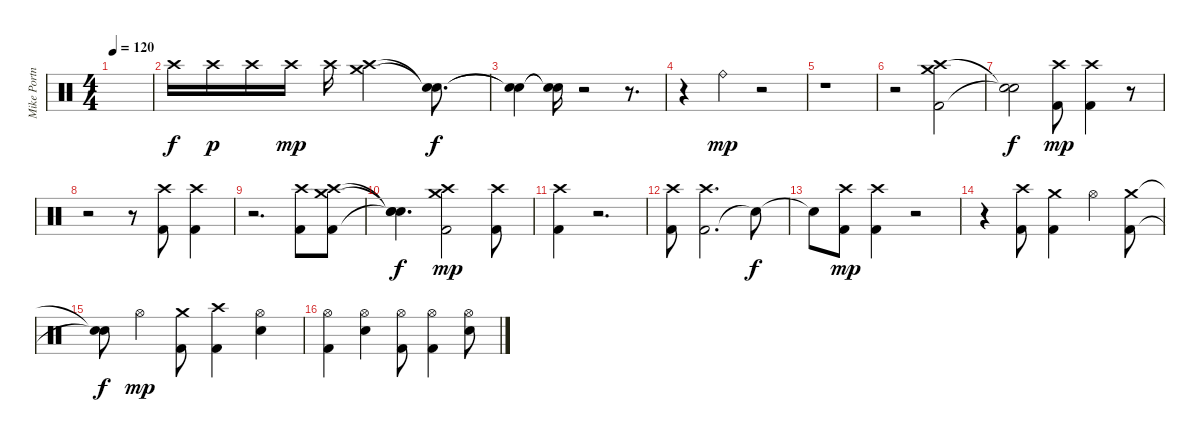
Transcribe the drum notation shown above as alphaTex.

\track ("Mike Portnoy" "Mike Portn") {instrument percussion}
\staff {score}
\articulation defaults
\ts (4 4)
\tempo 120
\clef neutral
\ks c
|
"Crash high (hit)".16 "Crash high (hit)".16{dy p} "Crash high (hit)".16 "Crash high (hit)".16{dy mp} "Crash high (hit)".16 ("Crash high (hit)" "Crash medium (hit)").2 ("Snare (hit)"{t} "Snare (hit)"{t}).8{d dy f} |
("Snare (hit)"{t} "Snare (hit)"{t}).4 ("Snare (hit)"{t} "Snare (hit)"{t}).16 r.2 r.8{d} |
r.4 "Ride (bell)".4{dy mp volume 16} r.2 |
r.1 |
r.2 ("Kick (hit) 2" "Crash high (hit)" "Crash medium (hit)").2 |
("Snare (hit)"{t} "Snare (hit)"{t}).2{dy f} ("Kick (hit) 2" "Crash high (hit)").8{dy mp} ("Kick (hit) 2" "Crash high (hit)").4{volume 16} r.8 |
r.2 r.8 ("Kick (hit) 2" "Crash high (hit)").8{volume 16} ("Kick (hit) 2" "Crash high (hit)").4{volume 16} |
r.2{d} ("Kick (hit) 2" "Crash high (hit)").8{volume 16} ("Kick (hit) 2" "Crash medium (hit)" "Crash high (hit)").8 |
("Snare (hit)"{t} "Snare (hit)"{t} "Snare (hit)"{t}).4{d dy f} ("Kick (hit) 2" "Crash high (hit)" "Crash medium (hit)").2{dy mp} ("Kick (hit) 2" "Crash high (hit)").8 |
("Kick (hit) 2" "Crash high (hit)").4{volume 16} r.2{d} |
("Kick (hit) 2" "Crash high (hit)").8{volume 16} ("Kick (hit) 2" "Crash high (hit)").2{d} "Snare (hit)"{t}.8{dy f} |
"Snare (hit)"{t}.8 ("Kick (hit) 2" "Crash high (hit)").8{dy mp} ("Kick (hit) 2" "Crash high (hit)").4{volume 16} r.2 |
r.4 ("Kick (hit) 2" "Crash high (hit)").8{volume 16} ("Kick (hit) 2" "Crash medium (hit)").4 "Hi-Hat (open)".4 ("Kick (hit) 2" "Crash medium (hit)").8 |
("Snare (hit)"{t} "Snare (hit)"{t}).8{dy f} "Hi-Hat (open)".4{dy mp} ("Kick (hit) 2" "Crash medium (hit)").8 ("Kick (hit) 2" "Crash high (hit)").4 ("Electric Snare (hit)" "Hi-Hat (open)").4 |
("Kick (hit) 2" "Hi-Hat (open)").4 ("Electric Snare (hit)" "Hi-Hat (open)").4 ("Kick (hit) 2" "Hi-Hat (open)").8 ("Kick (hit) 2" "Hi-Hat (open)").4 ("Electric Snare (hit)" "Hi-Hat (open)").8
